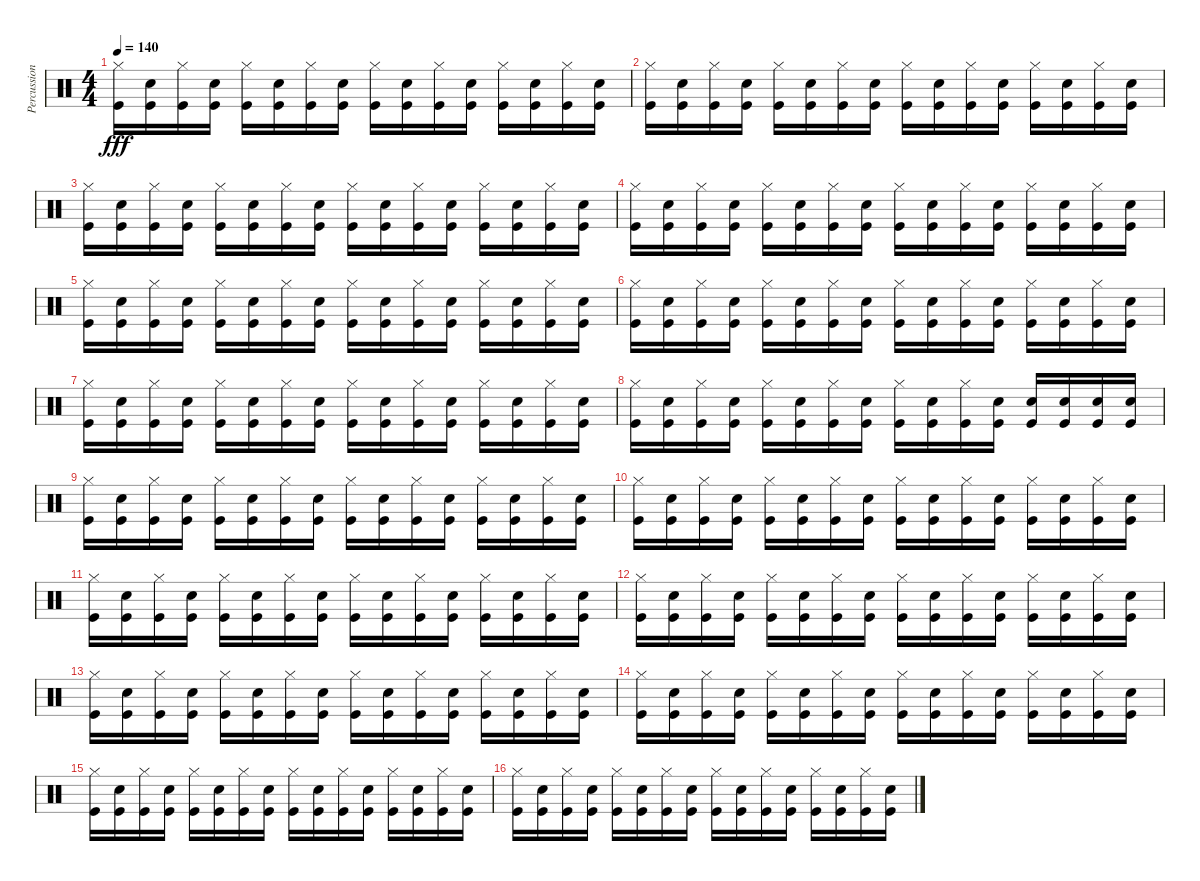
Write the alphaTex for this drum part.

\track ("Percussion" "Percussion") {instrument percussion}
\staff {score}
\articulation defaults
\ts (4 4)
\tempo 140
\clef neutral
\ks c
("Hi-Hat (closed)" "Kick (hit)").16{dy fff} ("Snare (hit) 2" "Kick (hit)").16 ("Hi-Hat (closed)" "Kick (hit)").16 ("Snare (hit) 2" "Kick (hit)").16 ("Hi-Hat (closed)" "Kick (hit)").16 ("Snare (hit) 2" "Kick (hit)").16 ("Hi-Hat (closed)" "Kick (hit)").16 ("Snare (hit) 2" "Kick (hit)").16 ("Hi-Hat (closed)" "Kick (hit)").16 ("Snare (hit) 2" "Kick (hit)").16 ("Hi-Hat (closed)" "Kick (hit)").16 ("Snare (hit) 2" "Kick (hit)").16 ("Hi-Hat (closed)" "Kick (hit)").16 ("Snare (hit) 2" "Kick (hit)").16 ("Hi-Hat (closed)" "Kick (hit)").16 ("Snare (hit) 2" "Kick (hit)").16 |
("Hi-Hat (closed)" "Kick (hit)").16 ("Snare (hit) 2" "Kick (hit)").16 ("Hi-Hat (closed)" "Kick (hit)").16 ("Snare (hit) 2" "Kick (hit)").16 ("Hi-Hat (closed)" "Kick (hit)").16 ("Snare (hit) 2" "Kick (hit)").16 ("Hi-Hat (closed)" "Kick (hit)").16 ("Snare (hit) 2" "Kick (hit)").16 ("Hi-Hat (closed)" "Kick (hit)").16 ("Snare (hit) 2" "Kick (hit)").16 ("Hi-Hat (closed)" "Kick (hit)").16 ("Snare (hit) 2" "Kick (hit)").16 ("Hi-Hat (closed)" "Kick (hit)").16 ("Snare (hit) 2" "Kick (hit)").16 ("Hi-Hat (closed)" "Kick (hit)").16 ("Snare (hit) 2" "Kick (hit)").16 |
("Hi-Hat (closed)" "Kick (hit)").16 ("Snare (hit) 2" "Kick (hit)").16 ("Hi-Hat (closed)" "Kick (hit)").16 ("Snare (hit) 2" "Kick (hit)").16 ("Hi-Hat (closed)" "Kick (hit)").16 ("Snare (hit) 2" "Kick (hit)").16 ("Hi-Hat (closed)" "Kick (hit)").16 ("Snare (hit) 2" "Kick (hit)").16 ("Hi-Hat (closed)" "Kick (hit)").16 ("Snare (hit) 2" "Kick (hit)").16 ("Hi-Hat (closed)" "Kick (hit)").16 ("Snare (hit) 2" "Kick (hit)").16 ("Hi-Hat (closed)" "Kick (hit)").16 ("Snare (hit) 2" "Kick (hit)").16 ("Hi-Hat (closed)" "Kick (hit)").16 ("Snare (hit) 2" "Kick (hit)").16 |
("Hi-Hat (closed)" "Kick (hit)").16 ("Snare (hit) 2" "Kick (hit)").16 ("Hi-Hat (closed)" "Kick (hit)").16 ("Snare (hit) 2" "Kick (hit)").16 ("Hi-Hat (closed)" "Kick (hit)").16 ("Snare (hit) 2" "Kick (hit)").16 ("Hi-Hat (closed)" "Kick (hit)").16 ("Snare (hit) 2" "Kick (hit)").16 ("Hi-Hat (closed)" "Kick (hit)").16 ("Snare (hit) 2" "Kick (hit)").16 ("Hi-Hat (closed)" "Kick (hit)").16 ("Snare (hit) 2" "Kick (hit)").16 ("Hi-Hat (closed)" "Kick (hit)").16 ("Snare (hit) 2" "Kick (hit)").16 ("Hi-Hat (closed)" "Kick (hit)").16 ("Snare (hit) 2" "Kick (hit)").16 |
("Hi-Hat (closed)" "Kick (hit)").16 ("Snare (hit) 2" "Kick (hit)").16 ("Hi-Hat (closed)" "Kick (hit)").16 ("Snare (hit) 2" "Kick (hit)").16 ("Hi-Hat (closed)" "Kick (hit)").16 ("Snare (hit) 2" "Kick (hit)").16 ("Hi-Hat (closed)" "Kick (hit)").16 ("Snare (hit) 2" "Kick (hit)").16 ("Hi-Hat (closed)" "Kick (hit)").16 ("Snare (hit) 2" "Kick (hit)").16 ("Hi-Hat (closed)" "Kick (hit)").16 ("Snare (hit) 2" "Kick (hit)").16 ("Hi-Hat (closed)" "Kick (hit)").16 ("Snare (hit) 2" "Kick (hit)").16 ("Hi-Hat (closed)" "Kick (hit)").16 ("Snare (hit) 2" "Kick (hit)").16 |
("Hi-Hat (closed)" "Kick (hit)").16 ("Snare (hit) 2" "Kick (hit)").16 ("Hi-Hat (closed)" "Kick (hit)").16 ("Snare (hit) 2" "Kick (hit)").16 ("Hi-Hat (closed)" "Kick (hit)").16 ("Snare (hit) 2" "Kick (hit)").16 ("Hi-Hat (closed)" "Kick (hit)").16 ("Snare (hit) 2" "Kick (hit)").16 ("Hi-Hat (closed)" "Kick (hit)").16 ("Snare (hit) 2" "Kick (hit)").16 ("Hi-Hat (closed)" "Kick (hit)").16 ("Snare (hit) 2" "Kick (hit)").16 ("Hi-Hat (closed)" "Kick (hit)").16 ("Snare (hit) 2" "Kick (hit)").16 ("Hi-Hat (closed)" "Kick (hit)").16 ("Snare (hit) 2" "Kick (hit)").16 |
("Hi-Hat (closed)" "Kick (hit)").16 ("Snare (hit) 2" "Kick (hit)").16 ("Hi-Hat (closed)" "Kick (hit)").16 ("Snare (hit) 2" "Kick (hit)").16 ("Hi-Hat (closed)" "Kick (hit)").16 ("Snare (hit) 2" "Kick (hit)").16 ("Hi-Hat (closed)" "Kick (hit)").16 ("Snare (hit) 2" "Kick (hit)").16 ("Hi-Hat (closed)" "Kick (hit)").16 ("Snare (hit) 2" "Kick (hit)").16 ("Hi-Hat (closed)" "Kick (hit)").16 ("Snare (hit) 2" "Kick (hit)").16 ("Hi-Hat (closed)" "Kick (hit)").16 ("Snare (hit) 2" "Kick (hit)").16 ("Hi-Hat (closed)" "Kick (hit)").16 ("Snare (hit) 2" "Kick (hit)").16 |
("Hi-Hat (closed)" "Kick (hit)").16 ("Snare (hit) 2" "Kick (hit)").16 ("Hi-Hat (closed)" "Kick (hit)").16 ("Snare (hit) 2" "Kick (hit)").16 ("Hi-Hat (closed)" "Kick (hit)").16 ("Snare (hit) 2" "Kick (hit)").16 ("Hi-Hat (closed)" "Kick (hit)").16 ("Snare (hit) 2" "Kick (hit)").16 ("Hi-Hat (closed)" "Kick (hit)").16 ("Snare (hit) 2" "Kick (hit)").16 ("Hi-Hat (closed)" "Kick (hit)").16 ("Snare (hit) 2" "Kick (hit)").16 ("Snare (hit) 2" "Kick (hit)").16 ("Snare (hit) 2" "Kick (hit)").16 ("Snare (hit) 2" "Kick (hit)").16 ("Snare (hit) 2" "Kick (hit)").16 |
("Hi-Hat (closed)" "Kick (hit)").16 ("Snare (hit) 2" "Kick (hit)").16 ("Hi-Hat (closed)" "Kick (hit)").16 ("Snare (hit) 2" "Kick (hit)").16 ("Hi-Hat (closed)" "Kick (hit)").16 ("Snare (hit) 2" "Kick (hit)").16 ("Hi-Hat (closed)" "Kick (hit)").16 ("Snare (hit) 2" "Kick (hit)").16 ("Hi-Hat (closed)" "Kick (hit)").16 ("Snare (hit) 2" "Kick (hit)").16 ("Hi-Hat (closed)" "Kick (hit)").16 ("Snare (hit) 2" "Kick (hit)").16 ("Hi-Hat (closed)" "Kick (hit)").16 ("Snare (hit) 2" "Kick (hit)").16 ("Hi-Hat (closed)" "Kick (hit)").16 ("Snare (hit) 2" "Kick (hit)").16 |
("Hi-Hat (closed)" "Kick (hit)").16 ("Snare (hit) 2" "Kick (hit)").16 ("Hi-Hat (closed)" "Kick (hit)").16 ("Snare (hit) 2" "Kick (hit)").16 ("Hi-Hat (closed)" "Kick (hit)").16 ("Snare (hit) 2" "Kick (hit)").16 ("Hi-Hat (closed)" "Kick (hit)").16 ("Snare (hit) 2" "Kick (hit)").16 ("Hi-Hat (closed)" "Kick (hit)").16 ("Snare (hit) 2" "Kick (hit)").16 ("Hi-Hat (closed)" "Kick (hit)").16 ("Snare (hit) 2" "Kick (hit)").16 ("Hi-Hat (closed)" "Kick (hit)").16 ("Snare (hit) 2" "Kick (hit)").16 ("Hi-Hat (closed)" "Kick (hit)").16 ("Snare (hit) 2" "Kick (hit)").16 |
("Hi-Hat (closed)" "Kick (hit)").16 ("Snare (hit) 2" "Kick (hit)").16 ("Hi-Hat (closed)" "Kick (hit)").16 ("Snare (hit) 2" "Kick (hit)").16 ("Hi-Hat (closed)" "Kick (hit)").16 ("Snare (hit) 2" "Kick (hit)").16 ("Hi-Hat (closed)" "Kick (hit)").16 ("Snare (hit) 2" "Kick (hit)").16 ("Hi-Hat (closed)" "Kick (hit)").16 ("Snare (hit) 2" "Kick (hit)").16 ("Hi-Hat (closed)" "Kick (hit)").16 ("Snare (hit) 2" "Kick (hit)").16 ("Hi-Hat (closed)" "Kick (hit)").16 ("Snare (hit) 2" "Kick (hit)").16 ("Hi-Hat (closed)" "Kick (hit)").16 ("Snare (hit) 2" "Kick (hit)").16 |
("Hi-Hat (closed)" "Kick (hit)").16 ("Snare (hit) 2" "Kick (hit)").16 ("Hi-Hat (closed)" "Kick (hit)").16 ("Snare (hit) 2" "Kick (hit)").16 ("Hi-Hat (closed)" "Kick (hit)").16 ("Snare (hit) 2" "Kick (hit)").16 ("Hi-Hat (closed)" "Kick (hit)").16 ("Snare (hit) 2" "Kick (hit)").16 ("Hi-Hat (closed)" "Kick (hit)").16 ("Snare (hit) 2" "Kick (hit)").16 ("Hi-Hat (closed)" "Kick (hit)").16 ("Snare (hit) 2" "Kick (hit)").16 ("Hi-Hat (closed)" "Kick (hit)").16 ("Snare (hit) 2" "Kick (hit)").16 ("Hi-Hat (closed)" "Kick (hit)").16 ("Snare (hit) 2" "Kick (hit)").16 |
("Hi-Hat (closed)" "Kick (hit)").16 ("Snare (hit) 2" "Kick (hit)").16 ("Hi-Hat (closed)" "Kick (hit)").16 ("Snare (hit) 2" "Kick (hit)").16 ("Hi-Hat (closed)" "Kick (hit)").16 ("Snare (hit) 2" "Kick (hit)").16 ("Hi-Hat (closed)" "Kick (hit)").16 ("Snare (hit) 2" "Kick (hit)").16 ("Hi-Hat (closed)" "Kick (hit)").16 ("Snare (hit) 2" "Kick (hit)").16 ("Hi-Hat (closed)" "Kick (hit)").16 ("Snare (hit) 2" "Kick (hit)").16 ("Hi-Hat (closed)" "Kick (hit)").16 ("Snare (hit) 2" "Kick (hit)").16 ("Hi-Hat (closed)" "Kick (hit)").16 ("Snare (hit) 2" "Kick (hit)").16 |
("Hi-Hat (closed)" "Kick (hit)").16 ("Snare (hit) 2" "Kick (hit)").16 ("Hi-Hat (closed)" "Kick (hit)").16 ("Snare (hit) 2" "Kick (hit)").16 ("Hi-Hat (closed)" "Kick (hit)").16 ("Snare (hit) 2" "Kick (hit)").16 ("Hi-Hat (closed)" "Kick (hit)").16 ("Snare (hit) 2" "Kick (hit)").16 ("Hi-Hat (closed)" "Kick (hit)").16 ("Snare (hit) 2" "Kick (hit)").16 ("Hi-Hat (closed)" "Kick (hit)").16 ("Snare (hit) 2" "Kick (hit)").16 ("Hi-Hat (closed)" "Kick (hit)").16 ("Snare (hit) 2" "Kick (hit)").16 ("Hi-Hat (closed)" "Kick (hit)").16 ("Snare (hit) 2" "Kick (hit)").16 |
("Hi-Hat (closed)" "Kick (hit)").16 ("Snare (hit) 2" "Kick (hit)").16 ("Hi-Hat (closed)" "Kick (hit)").16 ("Snare (hit) 2" "Kick (hit)").16 ("Hi-Hat (closed)" "Kick (hit)").16 ("Snare (hit) 2" "Kick (hit)").16 ("Hi-Hat (closed)" "Kick (hit)").16 ("Snare (hit) 2" "Kick (hit)").16 ("Hi-Hat (closed)" "Kick (hit)").16 ("Snare (hit) 2" "Kick (hit)").16 ("Hi-Hat (closed)" "Kick (hit)").16 ("Snare (hit) 2" "Kick (hit)").16 ("Hi-Hat (closed)" "Kick (hit)").16 ("Snare (hit) 2" "Kick (hit)").16 ("Hi-Hat (closed)" "Kick (hit)").16 ("Snare (hit) 2" "Kick (hit)").16 |
("Hi-Hat (closed)" "Kick (hit)").16 ("Snare (hit) 2" "Kick (hit)").16 ("Hi-Hat (closed)" "Kick (hit)").16 ("Snare (hit) 2" "Kick (hit)").16 ("Hi-Hat (closed)" "Kick (hit)").16 ("Snare (hit) 2" "Kick (hit)").16 ("Hi-Hat (closed)" "Kick (hit)").16 ("Snare (hit) 2" "Kick (hit)").16 ("Hi-Hat (closed)" "Kick (hit)").16 ("Snare (hit) 2" "Kick (hit)").16 ("Hi-Hat (closed)" "Kick (hit)").16 ("Snare (hit) 2" "Kick (hit)").16 ("Hi-Hat (closed)" "Kick (hit)").16 ("Snare (hit) 2" "Kick (hit)").16 ("Hi-Hat (closed)" "Kick (hit)").16 ("Snare (hit) 2" "Kick (hit)").16
